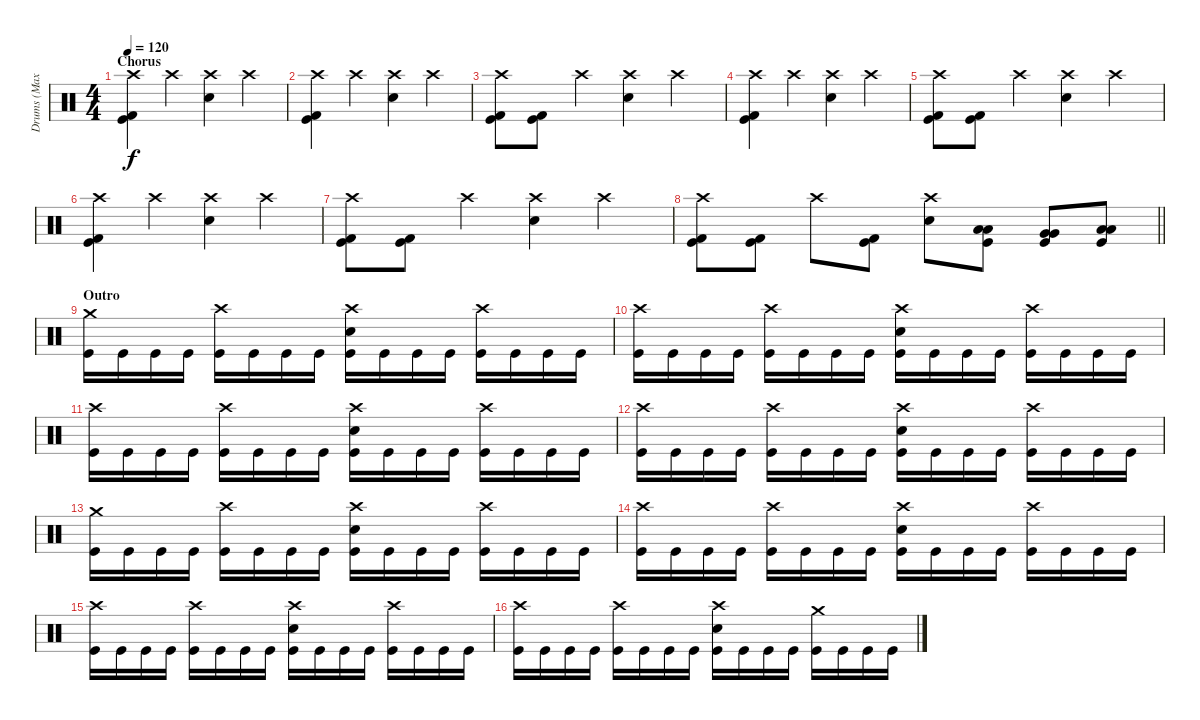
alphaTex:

\track ("Drums (Max Duhamel)" "Drums (Max") {instrument percussion}
\staff {score}
\articulation defaults
\ts (4 4)
\section ("" "Chorus")
\tempo 120
\clef neutral
\ks c
("Crash high (hit)" "Kick (hit)" "Kick (hit) 2").4{dy f} "Crash high (hit)".4 ("Crash high (hit)" "Electric Snare (hit)").4 "Crash high (hit)".4 |
("Crash high (hit)" "Kick (hit)" "Kick (hit) 2").4 "Crash high (hit)".4 ("Crash high (hit)" "Electric Snare (hit)").4 "Crash high (hit)".4 |
("Crash high (hit)" "Kick (hit)" "Kick (hit) 2").8 ("Kick (hit)" "Kick (hit) 2").8 "Crash high (hit)".4 ("Crash high (hit)" "Electric Snare (hit)").4 "Crash high (hit)".4 |
("Crash high (hit)" "Kick (hit)" "Kick (hit) 2").4 "Crash high (hit)".4 ("Crash high (hit)" "Electric Snare (hit)").4 "Crash high (hit)".4 |
("Crash high (hit)" "Kick (hit)" "Kick (hit) 2").8 ("Kick (hit)" "Kick (hit) 2").8 "Crash high (hit)".4 ("Crash high (hit)" "Electric Snare (hit)").4 "Crash high (hit)".4 |
("Crash high (hit)" "Kick (hit)" "Kick (hit) 2").4 "Crash high (hit)".4 ("Crash high (hit)" "Electric Snare (hit)").4 "Crash high (hit)".4 |
("Crash high (hit)" "Kick (hit)" "Kick (hit) 2").8 ("Kick (hit)" "Kick (hit) 2").8 "Crash high (hit)".4 ("Crash high (hit)" "Electric Snare (hit)").4 "Crash high (hit)".4 |
\barLineRight lightlight
("Crash high (hit)" "Kick (hit)" "Kick (hit) 2").8 ("Kick (hit)" "Kick (hit) 2").8 "Crash high (hit)".8 ("Kick (hit)" "Kick (hit) 2").8 ("Crash high (hit)" "Electric Snare (hit)").8 ("Low Tom (hit)" "Low Tom (hit)" "Kick (hit)").8 ("Very Low Tom (hit)" "Very Low Tom (hit)" "Kick (hit)").8 ("Low Floor Tom (hit)" "Low Floor Tom (hit)" "Kick (hit)").8 |
\section ("" "Outro")
("Crash medium (hit)" "Kick (hit)").16 "Kick (hit)".16 "Kick (hit)".16 "Kick (hit)".16 ("Crash high (hit)" "Kick (hit)").16 "Kick (hit)".16 "Kick (hit)".16 "Kick (hit)".16 ("Crash high (hit)" "Electric Snare (hit)" "Kick (hit)").16 "Kick (hit)".16 "Kick (hit)".16 "Kick (hit)".16 ("Crash high (hit)" "Kick (hit)").16 "Kick (hit)".16 "Kick (hit)".16 "Kick (hit)".16 |
("Crash high (hit)" "Kick (hit)").16 "Kick (hit)".16 "Kick (hit)".16 "Kick (hit)".16 ("Crash high (hit)" "Kick (hit)").16 "Kick (hit)".16 "Kick (hit)".16 "Kick (hit)".16 ("Crash high (hit)" "Electric Snare (hit)" "Kick (hit)").16 "Kick (hit)".16 "Kick (hit)".16 "Kick (hit)".16 ("Crash high (hit)" "Kick (hit)").16 "Kick (hit)".16 "Kick (hit)".16 "Kick (hit)".16 |
("Crash high (hit)" "Kick (hit)").16 "Kick (hit)".16 "Kick (hit)".16 "Kick (hit)".16 ("Crash high (hit)" "Kick (hit)").16 "Kick (hit)".16 "Kick (hit)".16 "Kick (hit)".16 ("Crash high (hit)" "Electric Snare (hit)" "Kick (hit)").16 "Kick (hit)".16 "Kick (hit)".16 "Kick (hit)".16 ("Crash high (hit)" "Kick (hit)").16 "Kick (hit)".16 "Kick (hit)".16 "Kick (hit)".16 |
("Crash high (hit)" "Kick (hit)").16 "Kick (hit)".16 "Kick (hit)".16 "Kick (hit)".16 ("Crash high (hit)" "Kick (hit)").16 "Kick (hit)".16 "Kick (hit)".16 "Kick (hit)".16 ("Crash high (hit)" "Electric Snare (hit)" "Kick (hit)").16 "Kick (hit)".16 "Kick (hit)".16 "Kick (hit)".16 ("Crash high (hit)" "Kick (hit)").16 "Kick (hit)".16 "Kick (hit)".16 "Kick (hit)".16 |
("Crash medium (hit)" "Kick (hit)").16 "Kick (hit)".16 "Kick (hit)".16 "Kick (hit)".16 ("Crash high (hit)" "Kick (hit)").16 "Kick (hit)".16 "Kick (hit)".16 "Kick (hit)".16 ("Crash high (hit)" "Electric Snare (hit)" "Kick (hit)").16 "Kick (hit)".16 "Kick (hit)".16 "Kick (hit)".16 ("Crash high (hit)" "Kick (hit)").16 "Kick (hit)".16 "Kick (hit)".16 "Kick (hit)".16 |
("Crash high (hit)" "Kick (hit)").16 "Kick (hit)".16 "Kick (hit)".16 "Kick (hit)".16 ("Crash high (hit)" "Kick (hit)").16 "Kick (hit)".16 "Kick (hit)".16 "Kick (hit)".16 ("Crash high (hit)" "Electric Snare (hit)" "Kick (hit)").16 "Kick (hit)".16 "Kick (hit)".16 "Kick (hit)".16 ("Crash high (hit)" "Kick (hit)").16 "Kick (hit)".16 "Kick (hit)".16 "Kick (hit)".16 |
("Crash high (hit)" "Kick (hit)").16 "Kick (hit)".16 "Kick (hit)".16 "Kick (hit)".16 ("Crash high (hit)" "Kick (hit)").16 "Kick (hit)".16 "Kick (hit)".16 "Kick (hit)".16 ("Crash high (hit)" "Electric Snare (hit)" "Kick (hit)").16 "Kick (hit)".16 "Kick (hit)".16 "Kick (hit)".16 ("Crash high (hit)" "Kick (hit)").16 "Kick (hit)".16 "Kick (hit)".16 "Kick (hit)".16 |
("Crash high (hit)" "Kick (hit)").16 "Kick (hit)".16 "Kick (hit)".16 "Kick (hit)".16 ("Crash high (hit)" "Kick (hit)").16 "Kick (hit)".16 "Kick (hit)".16 "Kick (hit)".16 ("Crash high (hit)" "Electric Snare (hit)" "Kick (hit)").16 "Kick (hit)".16 "Kick (hit)".16 "Kick (hit)".16 ("Crash medium (hit)" "Kick (hit)").16 "Kick (hit)".16 "Kick (hit)".16 "Kick (hit)".16
